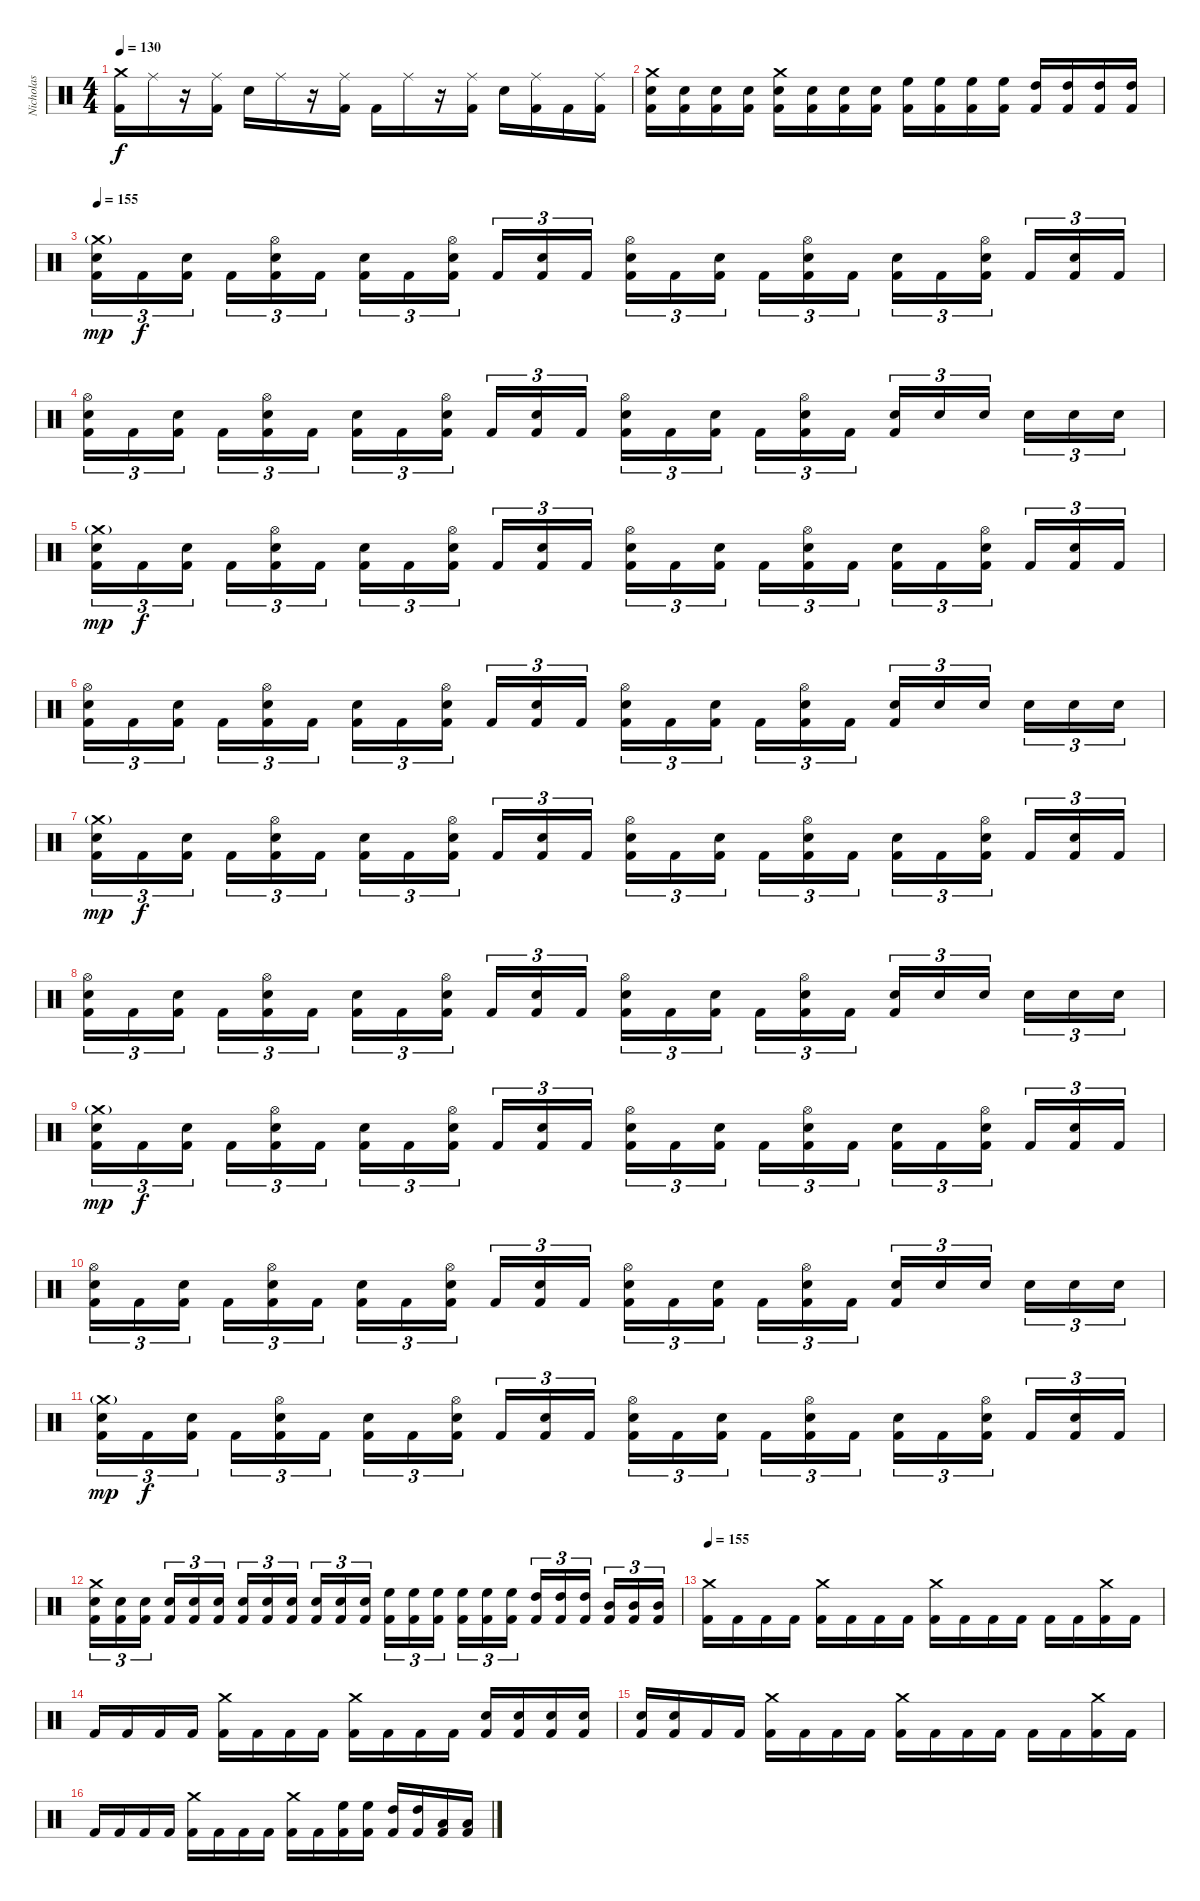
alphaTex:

\track ("Nicholas" "Nicholas") {instrument percussion}
\staff {score}
\articulation defaults
\ts (4 4)
\tempo 130
\clef neutral
\ks c
("Crash medium (hit)" "Kick (hit) 2").16{dy f} "Ride (middle)".16 r.16 ("Ride (middle)" "Kick (hit) 2").16 "Snare (hit) 2".16 "Ride (middle)".16 r.16 ("Ride (middle)" "Kick (hit) 2").16 "Kick (hit) 2".16 "Ride (middle)".16 r.16 ("Ride (middle)" "Kick (hit) 2").16 "Snare (hit) 2".16 ("Ride (middle)" "Kick (hit) 2").16 "Kick (hit) 2".16 ("Ride (middle)" "Kick (hit) 2").16 |
("Crash medium (hit)" "Snare (hit) 2" "Kick (hit) 2").16 ("Snare (hit) 2" "Kick (hit) 2").16 ("Snare (hit) 2" "Kick (hit) 2").16 ("Snare (hit) 2" "Kick (hit) 2").16 ("Crash medium (hit)" "Snare (hit) 2" "Kick (hit) 2").16 ("Snare (hit) 2" "Kick (hit) 2").16 ("Snare (hit) 2" "Kick (hit) 2").16 ("Snare (hit) 2" "Kick (hit) 2").16 ("High Floor Tom (hit)" "Kick (hit) 2").16 ("High Floor Tom (hit)" "Kick (hit) 2").16 ("High Floor Tom (hit)" "Kick (hit) 2").16 ("High Floor Tom (hit)" "Kick (hit) 2").16 ("High Tom (hit)" "Kick (hit) 2").16 ("High Tom (hit)" "Kick (hit) 2").16 ("High Tom (hit)" "Kick (hit) 2").16 ("High Tom (hit)" "Kick (hit) 2").16 |
\tempo 155
("Crash medium (hit)"{g} "Snare (hit) 2" "Kick (hit) 2").16{tu (3 2) dy mp} "Kick (hit) 2".16{tu (3 2) dy f} ("Snare (hit) 2" "Kick (hit) 2").16{tu (3 2)} "Kick (hit) 2".16{tu (3 2)} ("Hi-Hat (open)" "Snare (hit) 2" "Kick (hit) 2").16{tu (3 2)} "Kick (hit) 2".16{tu (3 2)} ("Snare (hit) 2" "Kick (hit) 2").16{tu (3 2)} "Kick (hit) 2".16{tu (3 2)} ("Hi-Hat (open)" "Snare (hit) 2" "Kick (hit) 2").16{tu (3 2)} "Kick (hit) 2".16{tu (3 2)} ("Snare (hit) 2" "Kick (hit) 2").16{tu (3 2)} "Kick (hit) 2".16{tu (3 2)} ("Hi-Hat (open)" "Snare (hit) 2" "Kick (hit) 2").16{tu (3 2)} "Kick (hit) 2".16{tu (3 2)} ("Snare (hit) 2" "Kick (hit) 2").16{tu (3 2)} "Kick (hit) 2".16{tu (3 2)} ("Hi-Hat (open)" "Snare (hit) 2" "Kick (hit) 2").16{tu (3 2)} "Kick (hit) 2".16{tu (3 2)} ("Snare (hit) 2" "Kick (hit) 2").16{tu (3 2)} "Kick (hit) 2".16{tu (3 2)} ("Hi-Hat (open)" "Snare (hit) 2" "Kick (hit) 2").16{tu (3 2)} "Kick (hit) 2".16{tu (3 2)} ("Snare (hit) 2" "Kick (hit) 2").16{tu (3 2)} "Kick (hit) 2".16{tu (3 2)} |
("Hi-Hat (open)" "Snare (hit) 2" "Kick (hit) 2").16{tu (3 2)} "Kick (hit) 2".16{tu (3 2)} ("Snare (hit) 2" "Kick (hit) 2").16{tu (3 2)} "Kick (hit) 2".16{tu (3 2)} ("Hi-Hat (open)" "Snare (hit) 2" "Kick (hit) 2").16{tu (3 2)} "Kick (hit) 2".16{tu (3 2)} ("Snare (hit) 2" "Kick (hit) 2").16{tu (3 2)} "Kick (hit) 2".16{tu (3 2)} ("Hi-Hat (open)" "Snare (hit) 2" "Kick (hit) 2").16{tu (3 2)} "Kick (hit) 2".16{tu (3 2)} ("Snare (hit) 2" "Kick (hit) 2").16{tu (3 2)} "Kick (hit) 2".16{tu (3 2)} ("Hi-Hat (open)" "Snare (hit) 2" "Kick (hit) 2").16{tu (3 2)} "Kick (hit) 2".16{tu (3 2)} ("Snare (hit) 2" "Kick (hit) 2").16{tu (3 2)} "Kick (hit) 2".16{tu (3 2)} ("Hi-Hat (open)" "Snare (hit) 2" "Kick (hit) 2").16{tu (3 2)} "Kick (hit) 2".16{tu (3 2)} ("Snare (hit) 2" "Kick (hit) 2").16{tu (3 2)} "Snare (hit) 2".16{tu (3 2)} "Snare (hit) 2".16{tu (3 2)} "Snare (hit) 2".16{tu (3 2)} "Snare (hit) 2".16{tu (3 2)} "Snare (hit) 2".16{tu (3 2)} |
("Crash medium (hit)"{g} "Snare (hit) 2" "Kick (hit) 2").16{tu (3 2) dy mp} "Kick (hit) 2".16{tu (3 2) dy f} ("Snare (hit) 2" "Kick (hit) 2").16{tu (3 2)} "Kick (hit) 2".16{tu (3 2)} ("Hi-Hat (open)" "Snare (hit) 2" "Kick (hit) 2").16{tu (3 2)} "Kick (hit) 2".16{tu (3 2)} ("Snare (hit) 2" "Kick (hit) 2").16{tu (3 2)} "Kick (hit) 2".16{tu (3 2)} ("Hi-Hat (open)" "Snare (hit) 2" "Kick (hit) 2").16{tu (3 2)} "Kick (hit) 2".16{tu (3 2)} ("Snare (hit) 2" "Kick (hit) 2").16{tu (3 2)} "Kick (hit) 2".16{tu (3 2)} ("Hi-Hat (open)" "Snare (hit) 2" "Kick (hit) 2").16{tu (3 2)} "Kick (hit) 2".16{tu (3 2)} ("Snare (hit) 2" "Kick (hit) 2").16{tu (3 2)} "Kick (hit) 2".16{tu (3 2)} ("Hi-Hat (open)" "Snare (hit) 2" "Kick (hit) 2").16{tu (3 2)} "Kick (hit) 2".16{tu (3 2)} ("Snare (hit) 2" "Kick (hit) 2").16{tu (3 2)} "Kick (hit) 2".16{tu (3 2)} ("Hi-Hat (open)" "Snare (hit) 2" "Kick (hit) 2").16{tu (3 2)} "Kick (hit) 2".16{tu (3 2)} ("Snare (hit) 2" "Kick (hit) 2").16{tu (3 2)} "Kick (hit) 2".16{tu (3 2)} |
("Hi-Hat (open)" "Snare (hit) 2" "Kick (hit) 2").16{tu (3 2)} "Kick (hit) 2".16{tu (3 2)} ("Snare (hit) 2" "Kick (hit) 2").16{tu (3 2)} "Kick (hit) 2".16{tu (3 2)} ("Hi-Hat (open)" "Snare (hit) 2" "Kick (hit) 2").16{tu (3 2)} "Kick (hit) 2".16{tu (3 2)} ("Snare (hit) 2" "Kick (hit) 2").16{tu (3 2)} "Kick (hit) 2".16{tu (3 2)} ("Hi-Hat (open)" "Snare (hit) 2" "Kick (hit) 2").16{tu (3 2)} "Kick (hit) 2".16{tu (3 2)} ("Snare (hit) 2" "Kick (hit) 2").16{tu (3 2)} "Kick (hit) 2".16{tu (3 2)} ("Hi-Hat (open)" "Snare (hit) 2" "Kick (hit) 2").16{tu (3 2)} "Kick (hit) 2".16{tu (3 2)} ("Snare (hit) 2" "Kick (hit) 2").16{tu (3 2)} "Kick (hit) 2".16{tu (3 2)} ("Hi-Hat (open)" "Snare (hit) 2" "Kick (hit) 2").16{tu (3 2)} "Kick (hit) 2".16{tu (3 2)} ("Snare (hit) 2" "Kick (hit) 2").16{tu (3 2)} "Snare (hit) 2".16{tu (3 2)} "Snare (hit) 2".16{tu (3 2)} "Snare (hit) 2".16{tu (3 2)} "Snare (hit) 2".16{tu (3 2)} "Snare (hit) 2".16{tu (3 2)} |
("Crash medium (hit)"{g} "Snare (hit) 2" "Kick (hit) 2").16{tu (3 2) dy mp} "Kick (hit) 2".16{tu (3 2) dy f} ("Snare (hit) 2" "Kick (hit) 2").16{tu (3 2)} "Kick (hit) 2".16{tu (3 2)} ("Hi-Hat (open)" "Snare (hit) 2" "Kick (hit) 2").16{tu (3 2)} "Kick (hit) 2".16{tu (3 2)} ("Snare (hit) 2" "Kick (hit) 2").16{tu (3 2)} "Kick (hit) 2".16{tu (3 2)} ("Hi-Hat (open)" "Snare (hit) 2" "Kick (hit) 2").16{tu (3 2)} "Kick (hit) 2".16{tu (3 2)} ("Snare (hit) 2" "Kick (hit) 2").16{tu (3 2)} "Kick (hit) 2".16{tu (3 2)} ("Hi-Hat (open)" "Snare (hit) 2" "Kick (hit) 2").16{tu (3 2)} "Kick (hit) 2".16{tu (3 2)} ("Snare (hit) 2" "Kick (hit) 2").16{tu (3 2)} "Kick (hit) 2".16{tu (3 2)} ("Hi-Hat (open)" "Snare (hit) 2" "Kick (hit) 2").16{tu (3 2)} "Kick (hit) 2".16{tu (3 2)} ("Snare (hit) 2" "Kick (hit) 2").16{tu (3 2)} "Kick (hit) 2".16{tu (3 2)} ("Hi-Hat (open)" "Snare (hit) 2" "Kick (hit) 2").16{tu (3 2)} "Kick (hit) 2".16{tu (3 2)} ("Snare (hit) 2" "Kick (hit) 2").16{tu (3 2)} "Kick (hit) 2".16{tu (3 2)} |
("Hi-Hat (open)" "Snare (hit) 2" "Kick (hit) 2").16{tu (3 2)} "Kick (hit) 2".16{tu (3 2)} ("Snare (hit) 2" "Kick (hit) 2").16{tu (3 2)} "Kick (hit) 2".16{tu (3 2)} ("Hi-Hat (open)" "Snare (hit) 2" "Kick (hit) 2").16{tu (3 2)} "Kick (hit) 2".16{tu (3 2)} ("Snare (hit) 2" "Kick (hit) 2").16{tu (3 2)} "Kick (hit) 2".16{tu (3 2)} ("Hi-Hat (open)" "Snare (hit) 2" "Kick (hit) 2").16{tu (3 2)} "Kick (hit) 2".16{tu (3 2)} ("Snare (hit) 2" "Kick (hit) 2").16{tu (3 2)} "Kick (hit) 2".16{tu (3 2)} ("Hi-Hat (open)" "Snare (hit) 2" "Kick (hit) 2").16{tu (3 2)} "Kick (hit) 2".16{tu (3 2)} ("Snare (hit) 2" "Kick (hit) 2").16{tu (3 2)} "Kick (hit) 2".16{tu (3 2)} ("Hi-Hat (open)" "Snare (hit) 2" "Kick (hit) 2").16{tu (3 2)} "Kick (hit) 2".16{tu (3 2)} ("Snare (hit) 2" "Kick (hit) 2").16{tu (3 2)} "Snare (hit) 2".16{tu (3 2)} "Snare (hit) 2".16{tu (3 2)} "Snare (hit) 2".16{tu (3 2)} "Snare (hit) 2".16{tu (3 2)} "Snare (hit) 2".16{tu (3 2)} |
("Crash medium (hit)"{g} "Snare (hit) 2" "Kick (hit) 2").16{tu (3 2) dy mp} "Kick (hit) 2".16{tu (3 2) dy f} ("Snare (hit) 2" "Kick (hit) 2").16{tu (3 2)} "Kick (hit) 2".16{tu (3 2)} ("Hi-Hat (open)" "Snare (hit) 2" "Kick (hit) 2").16{tu (3 2)} "Kick (hit) 2".16{tu (3 2)} ("Snare (hit) 2" "Kick (hit) 2").16{tu (3 2)} "Kick (hit) 2".16{tu (3 2)} ("Hi-Hat (open)" "Snare (hit) 2" "Kick (hit) 2").16{tu (3 2)} "Kick (hit) 2".16{tu (3 2)} ("Snare (hit) 2" "Kick (hit) 2").16{tu (3 2)} "Kick (hit) 2".16{tu (3 2)} ("Hi-Hat (open)" "Snare (hit) 2" "Kick (hit) 2").16{tu (3 2)} "Kick (hit) 2".16{tu (3 2)} ("Snare (hit) 2" "Kick (hit) 2").16{tu (3 2)} "Kick (hit) 2".16{tu (3 2)} ("Hi-Hat (open)" "Snare (hit) 2" "Kick (hit) 2").16{tu (3 2)} "Kick (hit) 2".16{tu (3 2)} ("Snare (hit) 2" "Kick (hit) 2").16{tu (3 2)} "Kick (hit) 2".16{tu (3 2)} ("Hi-Hat (open)" "Snare (hit) 2" "Kick (hit) 2").16{tu (3 2)} "Kick (hit) 2".16{tu (3 2)} ("Snare (hit) 2" "Kick (hit) 2").16{tu (3 2)} "Kick (hit) 2".16{tu (3 2)} |
("Hi-Hat (open)" "Snare (hit) 2" "Kick (hit) 2").16{tu (3 2)} "Kick (hit) 2".16{tu (3 2)} ("Snare (hit) 2" "Kick (hit) 2").16{tu (3 2)} "Kick (hit) 2".16{tu (3 2)} ("Hi-Hat (open)" "Snare (hit) 2" "Kick (hit) 2").16{tu (3 2)} "Kick (hit) 2".16{tu (3 2)} ("Snare (hit) 2" "Kick (hit) 2").16{tu (3 2)} "Kick (hit) 2".16{tu (3 2)} ("Hi-Hat (open)" "Snare (hit) 2" "Kick (hit) 2").16{tu (3 2)} "Kick (hit) 2".16{tu (3 2)} ("Snare (hit) 2" "Kick (hit) 2").16{tu (3 2)} "Kick (hit) 2".16{tu (3 2)} ("Hi-Hat (open)" "Snare (hit) 2" "Kick (hit) 2").16{tu (3 2)} "Kick (hit) 2".16{tu (3 2)} ("Snare (hit) 2" "Kick (hit) 2").16{tu (3 2)} "Kick (hit) 2".16{tu (3 2)} ("Hi-Hat (open)" "Snare (hit) 2" "Kick (hit) 2").16{tu (3 2)} "Kick (hit) 2".16{tu (3 2)} ("Snare (hit) 2" "Kick (hit) 2").16{tu (3 2)} "Snare (hit) 2".16{tu (3 2)} "Snare (hit) 2".16{tu (3 2)} "Snare (hit) 2".16{tu (3 2)} "Snare (hit) 2".16{tu (3 2)} "Snare (hit) 2".16{tu (3 2)} |
("Crash medium (hit)"{g} "Snare (hit) 2" "Kick (hit) 2").16{tu (3 2) dy mp} "Kick (hit) 2".16{tu (3 2) dy f} ("Snare (hit) 2" "Kick (hit) 2").16{tu (3 2)} "Kick (hit) 2".16{tu (3 2)} ("Hi-Hat (open)" "Snare (hit) 2" "Kick (hit) 2").16{tu (3 2)} "Kick (hit) 2".16{tu (3 2)} ("Snare (hit) 2" "Kick (hit) 2").16{tu (3 2)} "Kick (hit) 2".16{tu (3 2)} ("Hi-Hat (open)" "Snare (hit) 2" "Kick (hit) 2").16{tu (3 2)} "Kick (hit) 2".16{tu (3 2)} ("Snare (hit) 2" "Kick (hit) 2").16{tu (3 2)} "Kick (hit) 2".16{tu (3 2)} ("Hi-Hat (open)" "Snare (hit) 2" "Kick (hit) 2").16{tu (3 2)} "Kick (hit) 2".16{tu (3 2)} ("Snare (hit) 2" "Kick (hit) 2").16{tu (3 2)} "Kick (hit) 2".16{tu (3 2)} ("Hi-Hat (open)" "Snare (hit) 2" "Kick (hit) 2").16{tu (3 2)} "Kick (hit) 2".16{tu (3 2)} ("Snare (hit) 2" "Kick (hit) 2").16{tu (3 2)} "Kick (hit) 2".16{tu (3 2)} ("Hi-Hat (open)" "Snare (hit) 2" "Kick (hit) 2").16{tu (3 2)} "Kick (hit) 2".16{tu (3 2)} ("Snare (hit) 2" "Kick (hit) 2").16{tu (3 2)} "Kick (hit) 2".16{tu (3 2)} |
("Crash medium (hit)" "Snare (hit) 2" "Kick (hit) 2").16{tu (3 2)} ("Snare (hit) 2" "Kick (hit) 2").16{tu (3 2)} ("Snare (hit) 2" "Kick (hit) 2").16{tu (3 2)} ("Snare (hit) 2" "Kick (hit) 2").16{tu (3 2)} ("Snare (hit) 2" "Kick (hit) 2").16{tu (3 2)} ("Snare (hit) 2" "Kick (hit) 2").16{tu (3 2)} ("Snare (hit) 2" "Kick (hit) 2").16{tu (3 2)} ("Snare (hit) 2" "Kick (hit) 2").16{tu (3 2)} ("Snare (hit) 2" "Kick (hit) 2").16{tu (3 2)} ("Snare (hit) 2" "Kick (hit) 2").16{tu (3 2)} ("Snare (hit) 2" "Kick (hit) 2").16{tu (3 2)} ("Snare (hit) 2" "Kick (hit) 2").16{tu (3 2)} ("High Floor Tom (hit)" "Kick (hit) 2").16{tu (3 2)} ("High Floor Tom (hit)" "Kick (hit) 2").16{tu (3 2)} ("High Floor Tom (hit)" "Kick (hit) 2").16{tu (3 2)} ("High Floor Tom (hit)" "Kick (hit) 2").16{tu (3 2)} ("High Floor Tom (hit)" "Kick (hit) 2").16{tu (3 2)} ("High Floor Tom (hit)" "Kick (hit) 2").16{tu (3 2)} ("High Tom (hit)" "Kick (hit) 2").16{tu (3 2)} ("High Tom (hit)" "Kick (hit) 2").16{tu (3 2)} ("High Tom (hit)" "Kick (hit) 2").16{tu (3 2)} ("Mid Tom (hit)" "Kick (hit) 2").16{tu (3 2)} ("Mid Tom (hit)" "Kick (hit) 2").16{tu (3 2)} ("Mid Tom (hit)" "Kick (hit) 2").16{tu (3 2)} |
\tempo 155
("Crash medium (hit)" "Kick (hit) 2").16 "Kick (hit) 2".16 "Kick (hit) 2".16 "Kick (hit) 2".16 ("Crash medium (hit)" "Kick (hit) 2").16 "Kick (hit) 2".16 "Kick (hit) 2".16 "Kick (hit) 2".16 ("Crash medium (hit)" "Kick (hit) 2").16 "Kick (hit) 2".16 "Kick (hit) 2".16 "Kick (hit) 2".16 "Kick (hit) 2".16 "Kick (hit) 2".16 ("Crash medium (hit)" "Kick (hit) 2").16 "Kick (hit) 2".16 |
"Kick (hit) 2".16 "Kick (hit) 2".16 "Kick (hit) 2".16 "Kick (hit) 2".16 ("Crash medium (hit)" "Kick (hit) 2").16 "Kick (hit) 2".16 "Kick (hit) 2".16 "Kick (hit) 2".16 ("Crash medium (hit)" "Kick (hit) 2").16 "Kick (hit) 2".16 "Kick (hit) 2".16 "Kick (hit) 2".16 ("Snare (hit) 2" "Kick (hit) 2").16 ("Snare (hit) 2" "Kick (hit) 2").16 ("Snare (hit) 2" "Kick (hit) 2").16 ("Snare (hit) 2" "Kick (hit) 2").16 |
("Snare (hit) 2" "Kick (hit) 2").16 ("Snare (hit) 2" "Kick (hit) 2").16 "Kick (hit) 2".16 "Kick (hit) 2".16 ("Crash medium (hit)" "Kick (hit) 2").16 "Kick (hit) 2".16 "Kick (hit) 2".16 "Kick (hit) 2".16 ("Crash medium (hit)" "Kick (hit) 2").16 "Kick (hit) 2".16 "Kick (hit) 2".16 "Kick (hit) 2".16 "Kick (hit) 2".16 "Kick (hit) 2".16 ("Crash medium (hit)" "Kick (hit) 2").16 "Kick (hit) 2".16 |
"Kick (hit) 2".16 "Kick (hit) 2".16 "Kick (hit) 2".16 "Kick (hit) 2".16 ("Crash medium (hit)" "Kick (hit) 2").16 "Kick (hit) 2".16 "Kick (hit) 2".16 "Kick (hit) 2".16 ("Crash medium (hit)" "Kick (hit) 2").16 "Kick (hit) 2".16 ("High Floor Tom (hit)" "Kick (hit) 2").16 ("High Floor Tom (hit)" "Kick (hit) 2").16 ("High Tom (hit)" "Kick (hit) 2").16 ("High Tom (hit)" "Kick (hit) 2").16 ("Low Tom (hit)" "Kick (hit) 2").16 ("Low Tom (hit)" "Kick (hit) 2").16
